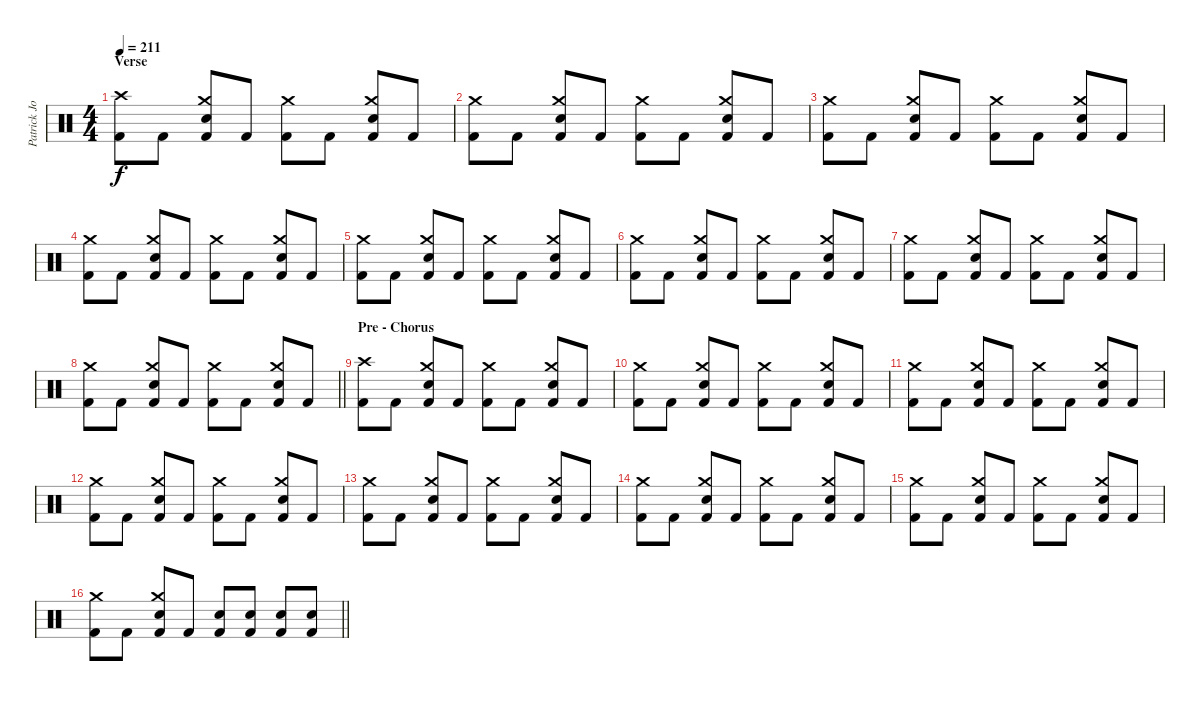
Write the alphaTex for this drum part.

\track ("Patrick Johansson" "Patrick Jo") {instrument percussion}
\staff {score}
\articulation defaults
\ts (4 4)
\section ("" "Verse")
\tempo 211
\clef neutral
\ks c
("Crash high (hit)" "Kick (hit) 2").8{dy f} "Kick (hit) 2".8 ("Crash medium (hit)" "Electric Snare (hit)" "Kick (hit) 2").8 "Kick (hit) 2".8 ("Crash medium (hit)" "Kick (hit) 2").8 "Kick (hit) 2".8 ("Crash medium (hit)" "Electric Snare (hit)" "Kick (hit) 2").8 "Kick (hit) 2".8 |
("Crash medium (hit)" "Kick (hit) 2").8 "Kick (hit) 2".8 ("Crash medium (hit)" "Electric Snare (hit)" "Kick (hit) 2").8 "Kick (hit) 2".8 ("Crash medium (hit)" "Kick (hit) 2").8 "Kick (hit) 2".8 ("Crash medium (hit)" "Electric Snare (hit)" "Kick (hit) 2").8 "Kick (hit) 2".8 |
("Crash medium (hit)" "Kick (hit) 2").8 "Kick (hit) 2".8 ("Crash medium (hit)" "Electric Snare (hit)" "Kick (hit) 2").8 "Kick (hit) 2".8 ("Crash medium (hit)" "Kick (hit) 2").8 "Kick (hit) 2".8 ("Crash medium (hit)" "Electric Snare (hit)" "Kick (hit) 2").8 "Kick (hit) 2".8 |
("Crash medium (hit)" "Kick (hit) 2").8 "Kick (hit) 2".8 ("Crash medium (hit)" "Electric Snare (hit)" "Kick (hit) 2").8 "Kick (hit) 2".8 ("Crash medium (hit)" "Kick (hit) 2").8 "Kick (hit) 2".8 ("Crash medium (hit)" "Electric Snare (hit)" "Kick (hit) 2").8 "Kick (hit) 2".8 |
("Crash medium (hit)" "Kick (hit) 2").8 "Kick (hit) 2".8 ("Crash medium (hit)" "Electric Snare (hit)" "Kick (hit) 2").8 "Kick (hit) 2".8 ("Crash medium (hit)" "Kick (hit) 2").8 "Kick (hit) 2".8 ("Crash medium (hit)" "Electric Snare (hit)" "Kick (hit) 2").8 "Kick (hit) 2".8 |
("Crash medium (hit)" "Kick (hit) 2").8 "Kick (hit) 2".8 ("Crash medium (hit)" "Electric Snare (hit)" "Kick (hit) 2").8 "Kick (hit) 2".8 ("Crash medium (hit)" "Kick (hit) 2").8 "Kick (hit) 2".8 ("Crash medium (hit)" "Electric Snare (hit)" "Kick (hit) 2").8 "Kick (hit) 2".8 |
("Crash medium (hit)" "Kick (hit) 2").8 "Kick (hit) 2".8 ("Crash medium (hit)" "Electric Snare (hit)" "Kick (hit) 2").8 "Kick (hit) 2".8 ("Crash medium (hit)" "Kick (hit) 2").8 "Kick (hit) 2".8 ("Crash medium (hit)" "Electric Snare (hit)" "Kick (hit) 2").8 "Kick (hit) 2".8 |
\barLineRight lightlight
("Crash medium (hit)" "Kick (hit) 2").8 "Kick (hit) 2".8 ("Crash medium (hit)" "Electric Snare (hit)" "Kick (hit) 2").8 "Kick (hit) 2".8 ("Crash medium (hit)" "Kick (hit) 2").8 "Kick (hit) 2".8 ("Crash medium (hit)" "Electric Snare (hit)" "Kick (hit) 2").8 "Kick (hit) 2".8 |
\section ("" "Pre - Chorus")
("Crash high (hit)" "Kick (hit) 2").8 "Kick (hit) 2".8 ("Crash medium (hit)" "Electric Snare (hit)" "Kick (hit) 2").8 "Kick (hit) 2".8 ("Crash medium (hit)" "Kick (hit) 2").8 "Kick (hit) 2".8 ("Crash medium (hit)" "Electric Snare (hit)" "Kick (hit) 2").8 "Kick (hit) 2".8 |
("Crash medium (hit)" "Kick (hit) 2").8 "Kick (hit) 2".8 ("Crash medium (hit)" "Electric Snare (hit)" "Kick (hit) 2").8 "Kick (hit) 2".8 ("Crash medium (hit)" "Kick (hit) 2").8 "Kick (hit) 2".8 ("Crash medium (hit)" "Electric Snare (hit)" "Kick (hit) 2").8 "Kick (hit) 2".8 |
("Crash medium (hit)" "Kick (hit) 2").8 "Kick (hit) 2".8 ("Crash medium (hit)" "Electric Snare (hit)" "Kick (hit) 2").8 "Kick (hit) 2".8 ("Crash medium (hit)" "Kick (hit) 2").8 "Kick (hit) 2".8 ("Crash medium (hit)" "Electric Snare (hit)" "Kick (hit) 2").8 "Kick (hit) 2".8 |
("Crash medium (hit)" "Kick (hit) 2").8 "Kick (hit) 2".8 ("Crash medium (hit)" "Electric Snare (hit)" "Kick (hit) 2").8 "Kick (hit) 2".8 ("Crash medium (hit)" "Kick (hit) 2").8 "Kick (hit) 2".8 ("Crash medium (hit)" "Electric Snare (hit)" "Kick (hit) 2").8 "Kick (hit) 2".8 |
("Crash medium (hit)" "Kick (hit) 2").8 "Kick (hit) 2".8 ("Crash medium (hit)" "Electric Snare (hit)" "Kick (hit) 2").8 "Kick (hit) 2".8 ("Crash medium (hit)" "Kick (hit) 2").8 "Kick (hit) 2".8 ("Crash medium (hit)" "Electric Snare (hit)" "Kick (hit) 2").8 "Kick (hit) 2".8 |
("Crash medium (hit)" "Kick (hit) 2").8 "Kick (hit) 2".8 ("Crash medium (hit)" "Electric Snare (hit)" "Kick (hit) 2").8 "Kick (hit) 2".8 ("Crash medium (hit)" "Kick (hit) 2").8 "Kick (hit) 2".8 ("Crash medium (hit)" "Electric Snare (hit)" "Kick (hit) 2").8 "Kick (hit) 2".8 |
("Crash medium (hit)" "Kick (hit) 2").8 "Kick (hit) 2".8 ("Crash medium (hit)" "Electric Snare (hit)" "Kick (hit) 2").8 "Kick (hit) 2".8 ("Crash medium (hit)" "Kick (hit) 2").8 "Kick (hit) 2".8 ("Crash medium (hit)" "Electric Snare (hit)" "Kick (hit) 2").8 "Kick (hit) 2".8 |
\barLineRight lightlight
("Crash medium (hit)" "Kick (hit) 2").8 "Kick (hit) 2".8 ("Crash medium (hit)" "Electric Snare (hit)" "Kick (hit) 2").8 "Kick (hit) 2".8 ("Electric Snare (hit)" "Kick (hit) 2").8 ("Electric Snare (hit)" "Kick (hit) 2").8 ("Electric Snare (hit)" "Kick (hit) 2").8 ("Electric Snare (hit)" "Kick (hit) 2").8
